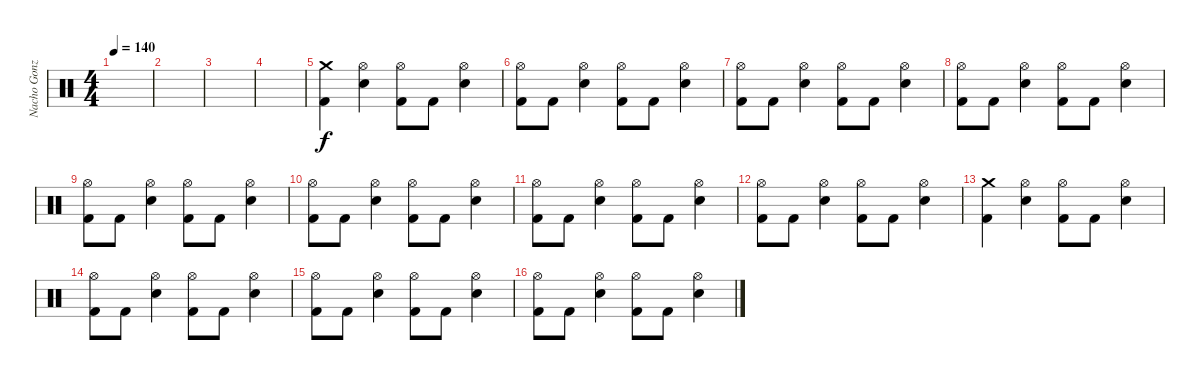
\track ("Nacho Gonzalez" "Nacho Gonz") {instrument percussion}
\staff {score}
\articulation defaults
\ts (4 4)
\tempo 140
\clef neutral
\ks c
|
|
|
|
("Crash medium (hit)" "Kick (hit) 2").4 ("Hi-Hat (open)" "Electric Snare (hit)").4 ("Hi-Hat (open)" "Kick (hit) 2").8 "Kick (hit) 2".8 ("Hi-Hat (open)" "Electric Snare (hit)").4 |
("Hi-Hat (open)" "Kick (hit) 2").8 "Kick (hit) 2".8 ("Hi-Hat (open)" "Electric Snare (hit)").4 ("Hi-Hat (open)" "Kick (hit) 2").8 "Kick (hit) 2".8 ("Hi-Hat (open)" "Electric Snare (hit)").4 |
("Hi-Hat (open)" "Kick (hit) 2").8 "Kick (hit) 2".8 ("Hi-Hat (open)" "Electric Snare (hit)").4 ("Hi-Hat (open)" "Kick (hit) 2").8 "Kick (hit) 2".8 ("Hi-Hat (open)" "Electric Snare (hit)").4 |
("Hi-Hat (open)" "Kick (hit) 2").8 "Kick (hit) 2".8 ("Hi-Hat (open)" "Electric Snare (hit)").4 ("Hi-Hat (open)" "Kick (hit) 2").8 "Kick (hit) 2".8 ("Hi-Hat (open)" "Electric Snare (hit)").4 |
("Hi-Hat (open)" "Kick (hit) 2").8 "Kick (hit) 2".8 ("Hi-Hat (open)" "Electric Snare (hit)").4 ("Hi-Hat (open)" "Kick (hit) 2").8 "Kick (hit) 2".8 ("Hi-Hat (open)" "Electric Snare (hit)").4 |
("Hi-Hat (open)" "Kick (hit) 2").8 "Kick (hit) 2".8 ("Hi-Hat (open)" "Electric Snare (hit)").4 ("Hi-Hat (open)" "Kick (hit) 2").8 "Kick (hit) 2".8 ("Hi-Hat (open)" "Electric Snare (hit)").4 |
("Hi-Hat (open)" "Kick (hit) 2").8 "Kick (hit) 2".8 ("Hi-Hat (open)" "Electric Snare (hit)").4 ("Hi-Hat (open)" "Kick (hit) 2").8 "Kick (hit) 2".8 ("Hi-Hat (open)" "Electric Snare (hit)").4 |
("Hi-Hat (open)" "Kick (hit) 2").8 "Kick (hit) 2".8 ("Hi-Hat (open)" "Electric Snare (hit)").4 ("Hi-Hat (open)" "Kick (hit) 2").8 "Kick (hit) 2".8 ("Hi-Hat (open)" "Electric Snare (hit)").4 |
("Crash medium (hit)" "Kick (hit) 2").4 ("Hi-Hat (open)" "Electric Snare (hit)").4 ("Hi-Hat (open)" "Kick (hit) 2").8 "Kick (hit) 2".8 ("Hi-Hat (open)" "Electric Snare (hit)").4 |
("Hi-Hat (open)" "Kick (hit) 2").8 "Kick (hit) 2".8 ("Hi-Hat (open)" "Electric Snare (hit)").4 ("Hi-Hat (open)" "Kick (hit) 2").8 "Kick (hit) 2".8 ("Hi-Hat (open)" "Electric Snare (hit)").4 |
("Hi-Hat (open)" "Kick (hit) 2").8 "Kick (hit) 2".8 ("Hi-Hat (open)" "Electric Snare (hit)").4 ("Hi-Hat (open)" "Kick (hit) 2").8 "Kick (hit) 2".8 ("Hi-Hat (open)" "Electric Snare (hit)").4 |
("Hi-Hat (open)" "Kick (hit) 2").8 "Kick (hit) 2".8 ("Hi-Hat (open)" "Electric Snare (hit)").4 ("Hi-Hat (open)" "Kick (hit) 2").8 "Kick (hit) 2".8 ("Hi-Hat (open)" "Electric Snare (hit)").4
